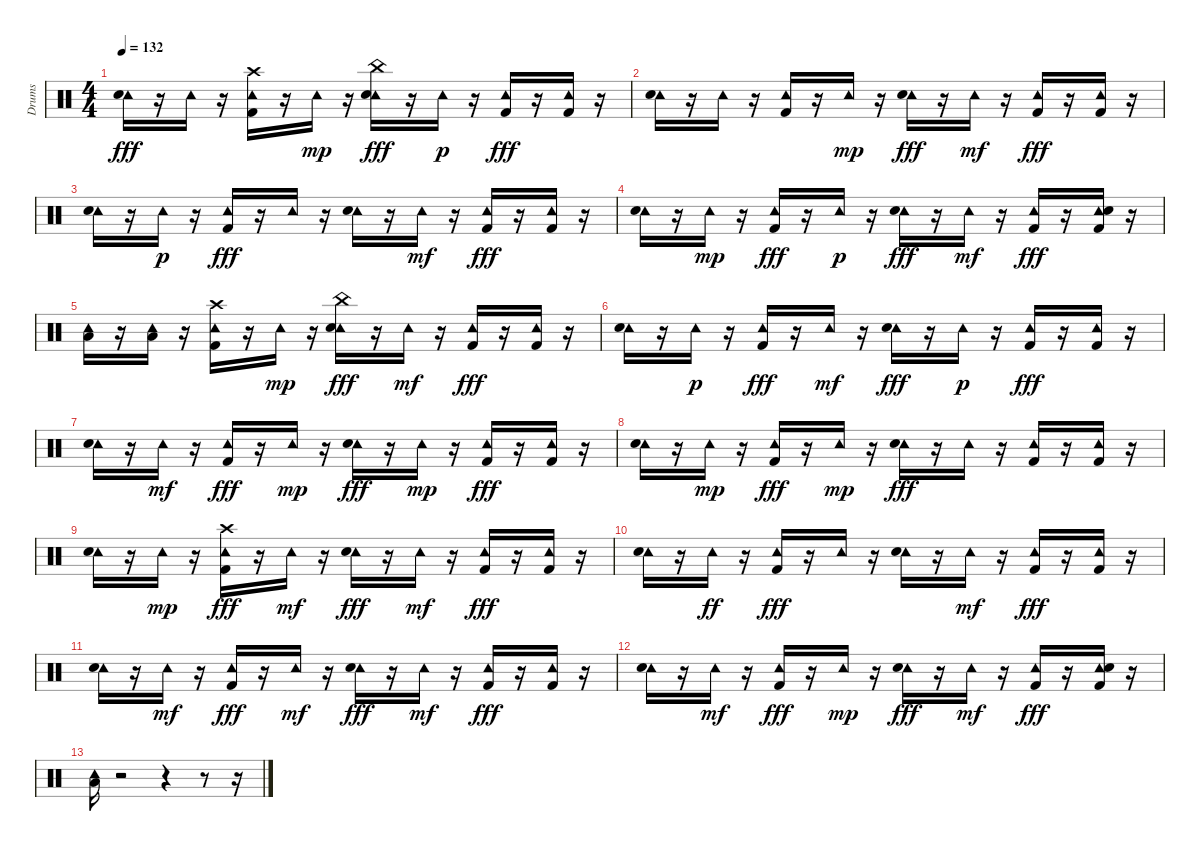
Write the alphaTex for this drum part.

\track ("Drums" "Drums") {instrument percussion}
\staff {score}
\articulation defaults
\ts (4 4)
\tempo 132
\clef neutral
\ks c
("Tambourine (hit)" "Snare (hit) 2").16{dy fff} r.16 "Tambourine (hit)".16 r.16 ("Tambourine (hit)" "Kick (hit) 2" "Crash high (hit)").16 r.16 "Tambourine (hit)".16{dy mp} r.16 ("Tambourine (hit)" "Snare (hit) 2" "China (hit)").16{dy fff} r.16 "Tambourine (hit)".16{dy p} r.16 ("Tambourine (hit)" "Kick (hit) 2").16{dy fff} r.16 ("Tambourine (hit)" "Kick (hit) 2").16 r.16 |
("Tambourine (hit)" "Snare (hit) 2").16 r.16 "Tambourine (hit)".16 r.16 ("Tambourine (hit)" "Kick (hit) 2").16 r.16 "Tambourine (hit)".16{dy mp} r.16 ("Tambourine (hit)" "Snare (hit) 2").16{dy fff} r.16 "Tambourine (hit)".16{dy mf} r.16 ("Tambourine (hit)" "Kick (hit) 2").16{dy fff} r.16 ("Tambourine (hit)" "Kick (hit) 2").16 r.16 |
("Tambourine (hit)" "Snare (hit) 2").16 r.16 "Tambourine (hit)".16{dy p} r.16 ("Tambourine (hit)" "Kick (hit) 2").16{dy fff} r.16 "Tambourine (hit)".16{volume 15} r.16 ("Tambourine (hit)" "Snare (hit) 2").16 r.16 "Tambourine (hit)".16{dy mf} r.16 ("Tambourine (hit)" "Kick (hit) 2").16{dy fff} r.16 ("Tambourine (hit)" "Kick (hit) 2").16{volume 14} r.16 |
("Tambourine (hit)" "Snare (hit) 2").16 r.16 "Tambourine (hit)".16{dy mp} r.16 ("Tambourine (hit)" "Kick (hit) 2").16{dy fff} r.16 "Tambourine (hit)".16{dy p} r.16 ("Tambourine (hit)" "Snare (hit) 2").16{dy fff volume 13} r.16 "Tambourine (hit)".16{dy mf} r.16 ("Tambourine (hit)" "Kick (hit) 2").16{dy fff} r.16 ("Tambourine (hit)" "Snare (hit) 2" "Kick (hit) 2").16 r.16 |
("Tambourine (hit)" "Low Tom (hit)").16{volume 12} r.16 ("Tambourine (hit)" "Low Floor Tom (hit)").16 r.16 ("Tambourine (hit)" "Crash high (hit)" "Kick (hit) 2").16 r.16 "Tambourine (hit)".16{dy mp} r.16 ("Tambourine (hit)" "China (hit)" "Snare (hit) 2").16{dy fff} r.16 "Tambourine (hit)".16{dy mf volume 11} r.16 ("Tambourine (hit)" "Kick (hit) 2").16{dy fff} r.16 ("Tambourine (hit)" "Kick (hit) 2").16 r.16 |
("Tambourine (hit)" "Snare (hit) 2").16 r.16 "Tambourine (hit)".16{dy p} r.16 ("Tambourine (hit)" "Kick (hit) 2").16{dy fff volume 10} r.16 "Tambourine (hit)".16{dy mf} r.16 ("Tambourine (hit)" "Snare (hit) 2").16{dy fff} r.16 "Tambourine (hit)".16{dy p} r.16 ("Tambourine (hit)" "Kick (hit) 2").16{dy fff} r.16 ("Tambourine (hit)" "Kick (hit) 2").16{volume 9} r.16 |
("Tambourine (hit)" "Snare (hit) 2").16 r.16 "Tambourine (hit)".16{dy mf} r.16 ("Tambourine (hit)" "Kick (hit) 2").16{dy fff} r.16 "Tambourine (hit)".16{dy mp volume 8} r.16 ("Tambourine (hit)" "Snare (hit) 2").16{dy fff} r.16 "Tambourine (hit)".16{dy mp} r.16 ("Tambourine (hit)" "Kick (hit) 2").16{dy fff} r.16 ("Tambourine (hit)" "Kick (hit) 2").16 r.16 |
("Tambourine (hit)" "Snare (hit) 2").16 r.16 "Tambourine (hit)".16{dy mp volume 7} r.16 ("Tambourine (hit)" "Kick (hit) 2").16{dy fff} r.16 "Tambourine (hit)".16{dy mp} r.16 ("Tambourine (hit)" "Snare (hit) 2").16{dy fff} r.16 "Tambourine (hit)".16{volume 6} r.16 ("Tambourine (hit)" "Kick (hit) 2").16 r.16 ("Tambourine (hit)" "Kick (hit) 2").16 r.16 |
("Tambourine (hit)" "Snare (hit) 2").16 r.16 "Tambourine (hit)".16{dy mp} r.16 ("Tambourine (hit)" "Kick (hit) 2" "Crash high (hit)").16{dy fff volume 5} r.16 "Tambourine (hit)".16{dy mf} r.16 ("Tambourine (hit)" "Snare (hit) 2").16{dy fff} r.16 "Tambourine (hit)".16{dy mf} r.16 ("Tambourine (hit)" "Kick (hit) 2").16{dy fff volume 4} r.16 ("Tambourine (hit)" "Kick (hit) 2").16 r.16 |
("Tambourine (hit)" "Snare (hit) 2").16 r.16 "Tambourine (hit)".16{dy ff} r.16 ("Tambourine (hit)" "Kick (hit) 2").16{dy fff} r.16 "Tambourine (hit)".16 r.16 ("Tambourine (hit)" "Snare (hit) 2").16{volume 3} r.16 "Tambourine (hit)".16{dy mf} r.16 ("Tambourine (hit)" "Kick (hit) 2").16{dy fff} r.16 ("Tambourine (hit)" "Kick (hit) 2").16 r.16 |
("Tambourine (hit)" "Snare (hit) 2").16{volume 2} r.16 "Tambourine (hit)".16{dy mf} r.16 ("Tambourine (hit)" "Kick (hit) 2").16{dy fff} r.16 "Tambourine (hit)".16{dy mf} r.16 ("Tambourine (hit)" "Snare (hit) 2").16{dy fff} r.16 "Tambourine (hit)".16{dy mf volume 1} r.16 ("Tambourine (hit)" "Kick (hit) 2").16{dy fff} r.16 ("Tambourine (hit)" "Kick (hit) 2").16 r.16 |
("Tambourine (hit)" "Snare (hit) 2").16 r.16 "Tambourine (hit)".16{dy mf} r.16 ("Tambourine (hit)" "Kick (hit) 2").16{dy fff} r.16 "Tambourine (hit)".16{dy mp} r.16 ("Tambourine (hit)" "Snare (hit) 2").16{dy fff volume 0} r.16 "Tambourine (hit)".16{dy mf} r.16 ("Tambourine (hit)" "Kick (hit) 2").16{dy fff} r.16 ("Tambourine (hit)" "Snare (hit) 2" "Kick (hit) 2").16 r.16 |
("Tambourine (hit)" "Low Tom (hit)").16 r.2 r.4 r.8 r.16
